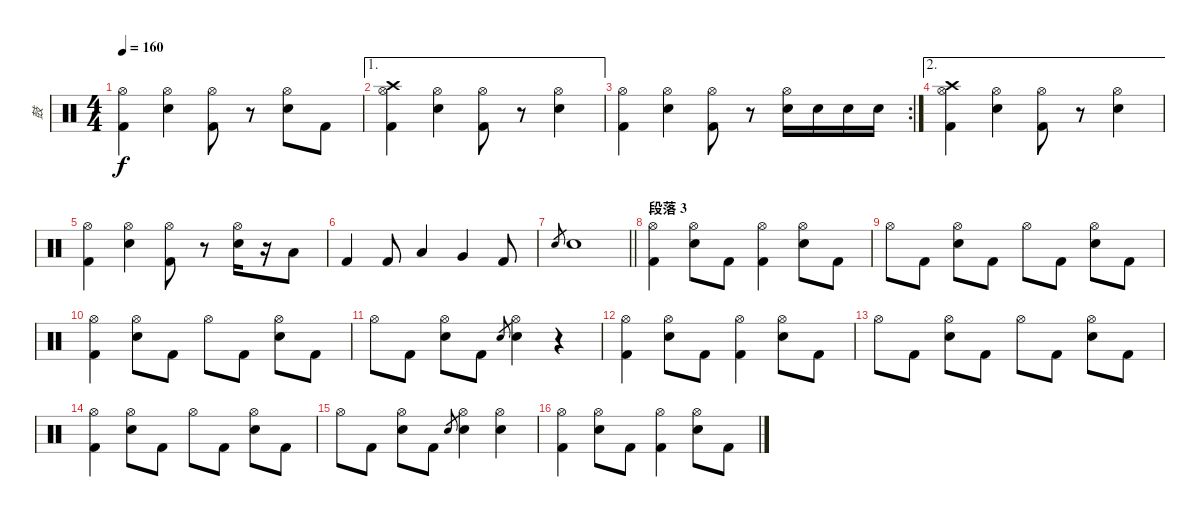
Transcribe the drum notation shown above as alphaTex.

\track ("鼓" "鼓") {instrument percussion}
\staff {score}
\articulation defaults
\ts (4 4)
\tempo 160
\clef neutral
\ks c
("Hi-Hat (open)" "Kick (hit) 2").4{dy f} ("Hi-Hat (open)" "Electric Snare (hit)").4 ("Hi-Hat (open)" "Kick (hit) 2").8 r.8 ("Hi-Hat (open)" "Electric Snare (hit)").8 "Kick (hit) 2".8 |
\ae 1
("Crash high (hit)" "Hi-Hat (open)" "Kick (hit) 2").4 ("Hi-Hat (open)" "Electric Snare (hit)").4 ("Hi-Hat (open)" "Kick (hit) 2").8 r.8 ("Hi-Hat (open)" "Electric Snare (hit)").4 |
\rc 2
("Hi-Hat (open)" "Kick (hit) 2").4 ("Hi-Hat (open)" "Electric Snare (hit)").4 ("Hi-Hat (open)" "Kick (hit) 2").8 r.8 ("Hi-Hat (open)" "Electric Snare (hit)").16 "Electric Snare (hit)".16 "Electric Snare (hit)".16 "Electric Snare (hit)".16 |
\ae 2
("Crash high (hit)" "Hi-Hat (open)" "Kick (hit) 2").4 ("Hi-Hat (open)" "Electric Snare (hit)").4 ("Hi-Hat (open)" "Kick (hit) 2").8 r.8 ("Hi-Hat (open)" "Electric Snare (hit)").4 |
("Hi-Hat (open)" "Kick (hit) 2").4 ("Hi-Hat (open)" "Electric Snare (hit)").4 ("Hi-Hat (open)" "Kick (hit) 2").8 r.8 ("Hi-Hat (open)" "Electric Snare (hit)").16 r.16 "Low Tom (hit)".8 |
"Kick (hit) 2".4 "Kick (hit) 2".8 "Low Tom (hit)".4 "Very Low Tom (hit)".4 "Kick (hit) 2".8 |
\barLineRight lightlight "Electric Snare (hit)".8{gr} "Electric Snare (hit)".1
|
\section ("" "段落 3")
("Hi-Hat (open)" "Kick (hit) 2").4 ("Hi-Hat (open)" "Electric Snare (hit)").8 "Kick (hit) 2".8 ("Hi-Hat (open)" "Kick (hit) 2").4 ("Hi-Hat (open)" "Electric Snare (hit)").8 "Kick (hit) 2".8 |
"Hi-Hat (open)".8 "Kick (hit) 2".8 ("Hi-Hat (open)" "Electric Snare (hit)").8 "Kick (hit) 2".8 "Hi-Hat (open)".8 "Kick (hit) 2".8 ("Hi-Hat (open)" "Electric Snare (hit)").8 "Kick (hit) 2".8 |
("Hi-Hat (open)" "Kick (hit) 2").4 ("Hi-Hat (open)" "Electric Snare (hit)").8 "Kick (hit) 2".8 "Hi-Hat (open)".8 "Kick (hit) 2".8 ("Hi-Hat (open)" "Electric Snare (hit)").8 "Kick (hit) 2".8 |
"Hi-Hat (open)".8 "Kick (hit) 2".8 ("Hi-Hat (open)" "Electric Snare (hit)").8 "Kick (hit) 2".8 "Electric Snare (hit)".8{gr} ("Hi-Hat (open)" "Electric Snare (hit)").4 r.4 |
("Hi-Hat (open)" "Kick (hit) 2").4 ("Hi-Hat (open)" "Electric Snare (hit)").8 "Kick (hit) 2".8 ("Hi-Hat (open)" "Kick (hit) 2").4 ("Hi-Hat (open)" "Electric Snare (hit)").8 "Kick (hit) 2".8 |
"Hi-Hat (open)".8 "Kick (hit) 2".8 ("Hi-Hat (open)" "Electric Snare (hit)").8 "Kick (hit) 2".8 "Hi-Hat (open)".8 "Kick (hit) 2".8 ("Hi-Hat (open)" "Electric Snare (hit)").8 "Kick (hit) 2".8 |
("Hi-Hat (open)" "Kick (hit) 2").4 ("Hi-Hat (open)" "Electric Snare (hit)").8 "Kick (hit) 2".8 "Hi-Hat (open)".8 "Kick (hit) 2".8 ("Hi-Hat (open)" "Electric Snare (hit)").8 "Kick (hit) 2".8 |
"Hi-Hat (open)".8 "Kick (hit) 2".8 ("Hi-Hat (open)" "Electric Snare (hit)").8 "Kick (hit) 2".8 "Electric Snare (hit)".8{gr} ("Hi-Hat (open)" "Electric Snare (hit)").4 ("Hi-Hat (open)" "Electric Snare (hit)").4 |
("Hi-Hat (open)" "Kick (hit) 2").4 ("Hi-Hat (open)" "Electric Snare (hit)").8 "Kick (hit) 2".8 ("Hi-Hat (open)" "Kick (hit) 2").4 ("Hi-Hat (open)" "Electric Snare (hit)").8 "Kick (hit) 2".8
